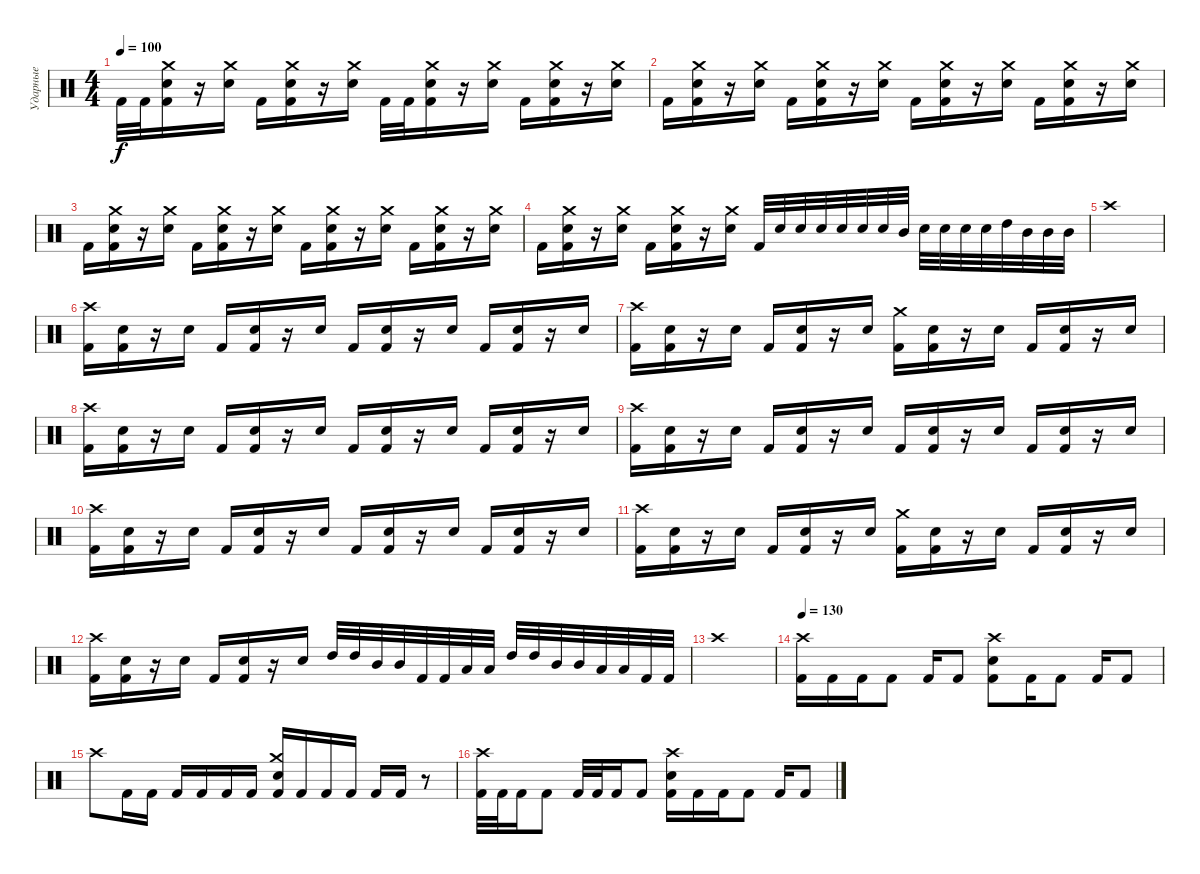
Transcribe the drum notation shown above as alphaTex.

\track ("Ударные" "Ударные") {instrument percussion}
\staff
\articulation defaults
\ts (4 4)
\tempo 100
\clef neutral
\ks c "Kick (hit) 2".32{dy f} "Kick (hit) 2".32
("Crash medium (hit)" "Electric Snare (hit)" "Kick (hit) 2").16 r.16 ("Crash medium (hit)" "Electric Snare (hit)").16 "Kick (hit) 2".16 ("Crash medium (hit)" "Electric Snare (hit)" "Kick (hit) 2").16 r.16 ("Crash medium (hit)" "Electric Snare (hit)").16 "Kick (hit) 2".32 "Kick (hit) 2".32 ("Crash medium (hit)" "Electric Snare (hit)" "Kick (hit) 2").16 r.16 ("Crash medium (hit)" "Electric Snare (hit)").16 "Kick (hit) 2".16 ("Crash medium (hit)" "Electric Snare (hit)" "Kick (hit) 2").16 r.16 ("Crash medium (hit)" "Electric Snare (hit)").16 |
"Kick (hit) 2".16 ("Crash medium (hit)" "Electric Snare (hit)" "Kick (hit) 2").16 r.16 ("Crash medium (hit)" "Electric Snare (hit)").16 "Kick (hit) 2".16 ("Crash medium (hit)" "Electric Snare (hit)" "Kick (hit) 2").16 r.16 ("Crash medium (hit)" "Electric Snare (hit)").16 "Kick (hit) 2".16 ("Crash medium (hit)" "Electric Snare (hit)" "Kick (hit) 2").16 r.16 ("Crash medium (hit)" "Electric Snare (hit)").16 "Kick (hit) 2".16 ("Crash medium (hit)" "Electric Snare (hit)" "Kick (hit) 2").16 r.16 ("Crash medium (hit)" "Electric Snare (hit)").16 |
"Kick (hit) 2".16 ("Crash medium (hit)" "Electric Snare (hit)" "Kick (hit) 2").16 r.16 ("Crash medium (hit)" "Electric Snare (hit)").16 "Kick (hit) 2".16 ("Crash medium (hit)" "Electric Snare (hit)" "Kick (hit) 2").16 r.16 ("Crash medium (hit)" "Electric Snare (hit)").16 "Kick (hit) 2".16 ("Crash medium (hit)" "Electric Snare (hit)" "Kick (hit) 2").16 r.16 ("Crash medium (hit)" "Electric Snare (hit)").16 "Kick (hit) 2".16 ("Crash medium (hit)" "Electric Snare (hit)" "Kick (hit) 2").16 r.16 ("Crash medium (hit)" "Electric Snare (hit)").16 |
"Kick (hit) 2".16 ("Crash medium (hit)" "Electric Snare (hit)" "Kick (hit) 2").16 r.16 ("Crash medium (hit)" "Electric Snare (hit)").16 "Kick (hit) 2".16 ("Crash medium (hit)" "Electric Snare (hit)" "Kick (hit) 2").16 r.16 ("Crash medium (hit)" "Electric Snare (hit)").16 "Kick (hit) 2".32 "Electric Snare (hit)".32 "Electric Snare (hit)".32 "Electric Snare (hit)".32 "Electric Snare (hit)".32 "Electric Snare (hit)".32 "Electric Snare (hit)".32 "Mid Tom (hit)".32 "Electric Snare (hit)".32 "Electric Snare (hit)".32 "Electric Snare (hit)".32 "Electric Snare (hit)".32 "High Tom (hit)".32 "Mid Tom (hit)".32 "Mid Tom (hit)".32 "Mid Tom (hit)".32 |
"Crash high (hit)".1 |
("Crash high (hit)" "Kick (hit) 2").16 ("Electric Snare (hit)" "Kick (hit) 2").16 r.16 "Electric Snare (hit)".16 "Kick (hit) 2".16 ("Electric Snare (hit)" "Kick (hit) 2").16 r.16 "Electric Snare (hit)".16 "Kick (hit) 2".16 ("Electric Snare (hit)" "Kick (hit) 2").16 r.16 "Electric Snare (hit)".16 "Kick (hit) 2".16 ("Electric Snare (hit)" "Kick (hit) 2").16 r.16 "Electric Snare (hit)".16 |
("Crash high (hit)" "Kick (hit) 2").16 ("Electric Snare (hit)" "Kick (hit) 2").16 r.16 "Electric Snare (hit)".16 "Kick (hit) 2".16 ("Electric Snare (hit)" "Kick (hit) 2").16 r.16 "Electric Snare (hit)".16 ("Crash medium (hit)" "Kick (hit) 2").16 ("Electric Snare (hit)" "Kick (hit) 2").16 r.16 "Electric Snare (hit)".16 "Kick (hit) 2".16 ("Electric Snare (hit)" "Kick (hit) 2").16 r.16 "Electric Snare (hit)".16 |
("Crash high (hit)" "Kick (hit) 2").16 ("Electric Snare (hit)" "Kick (hit) 2").16 r.16 "Electric Snare (hit)".16 "Kick (hit) 2".16 ("Electric Snare (hit)" "Kick (hit) 2").16 r.16 "Electric Snare (hit)".16 "Kick (hit) 2".16 ("Electric Snare (hit)" "Kick (hit) 2").16 r.16 "Electric Snare (hit)".16 "Kick (hit) 2".16 ("Electric Snare (hit)" "Kick (hit) 2").16 r.16 "Electric Snare (hit)".16 |
("Crash high (hit)" "Kick (hit) 2").16 ("Electric Snare (hit)" "Kick (hit) 2").16 r.16 "Electric Snare (hit)".16 "Kick (hit) 2".16 ("Electric Snare (hit)" "Kick (hit) 2").16 r.16 "Electric Snare (hit)".16 "Kick (hit) 2".16 ("Electric Snare (hit)" "Kick (hit) 2").16 r.16 "Electric Snare (hit)".16 "Kick (hit) 2".16 ("Electric Snare (hit)" "Kick (hit) 2").16 r.16 "Electric Snare (hit)".16 |
("Crash high (hit)" "Kick (hit) 2").16 ("Electric Snare (hit)" "Kick (hit) 2").16 r.16 "Electric Snare (hit)".16 "Kick (hit) 2".16 ("Electric Snare (hit)" "Kick (hit) 2").16 r.16 "Electric Snare (hit)".16 "Kick (hit) 2".16 ("Electric Snare (hit)" "Kick (hit) 2").16 r.16 "Electric Snare (hit)".16 "Kick (hit) 2".16 ("Electric Snare (hit)" "Kick (hit) 2").16 r.16 "Electric Snare (hit)".16 |
("Crash high (hit)" "Kick (hit) 2").16 ("Electric Snare (hit)" "Kick (hit) 2").16 r.16 "Electric Snare (hit)".16 "Kick (hit) 2".16 ("Electric Snare (hit)" "Kick (hit) 2").16 r.16 "Electric Snare (hit)".16 ("Crash medium (hit)" "Kick (hit) 2").16 ("Electric Snare (hit)" "Kick (hit) 2").16 r.16 "Electric Snare (hit)".16 "Kick (hit) 2".16 ("Electric Snare (hit)" "Kick (hit) 2").16 r.16 "Electric Snare (hit)".16 |
("Crash high (hit)" "Kick (hit) 2").16 ("Electric Snare (hit)" "Kick (hit) 2").16 r.16 "Electric Snare (hit)".16 "Kick (hit) 2".16 ("Electric Snare (hit)" "Kick (hit) 2").16 r.16 "Electric Snare (hit)".16 "High Tom (hit)".32 "High Tom (hit)".32 "Mid Tom (hit)".32 "Mid Tom (hit)".32 "Kick (hit) 2".32 "Kick (hit) 2".32 "Low Tom (hit)".32 "Low Tom (hit)".32 "High Tom (hit)".32 "High Tom (hit)".32 "Mid Tom (hit)".32 "Mid Tom (hit)".32 "Low Tom (hit)".32 "Low Tom (hit)".32 "Kick (hit) 2".32 "Kick (hit) 2".32 |
"Crash high (hit)".1 |
\tempo 130
("Crash high (hit)" "Kick (hit) 2").16 "Kick (hit) 2".16 "Kick (hit) 2".16 "Kick (hit) 2".8 "Kick (hit) 2".16 "Kick (hit) 2".8 ("Crash high (hit)" "Electric Snare (hit)" "Kick (hit) 2").8 "Kick (hit) 2".16 "Kick (hit) 2".8 "Kick (hit) 2".16 "Kick (hit) 2".8 |
"Crash high (hit)".8 "Kick (hit) 2".16 "Kick (hit) 2".16 "Kick (hit) 2".16 "Kick (hit) 2".16 "Kick (hit) 2".16 "Kick (hit) 2".16 ("Crash medium (hit)" "Electric Snare (hit)" "Kick (hit) 2").16 "Kick (hit) 2".16 "Kick (hit) 2".16 "Kick (hit) 2".16 "Kick (hit) 2".16 "Kick (hit) 2".16 r.8 |
("Crash high (hit)" "Kick (hit) 2").32 "Kick (hit) 2".32 "Kick (hit) 2".16 "Kick (hit) 2".8 "Kick (hit) 2".32 "Kick (hit) 2".32 "Kick (hit) 2".16 "Kick (hit) 2".8 ("Crash high (hit)" "Electric Snare (hit)" "Kick (hit) 2").16 "Kick (hit) 2".16 "Kick (hit) 2".16 "Kick (hit) 2".8 "Kick (hit) 2".16 "Kick (hit) 2".8
